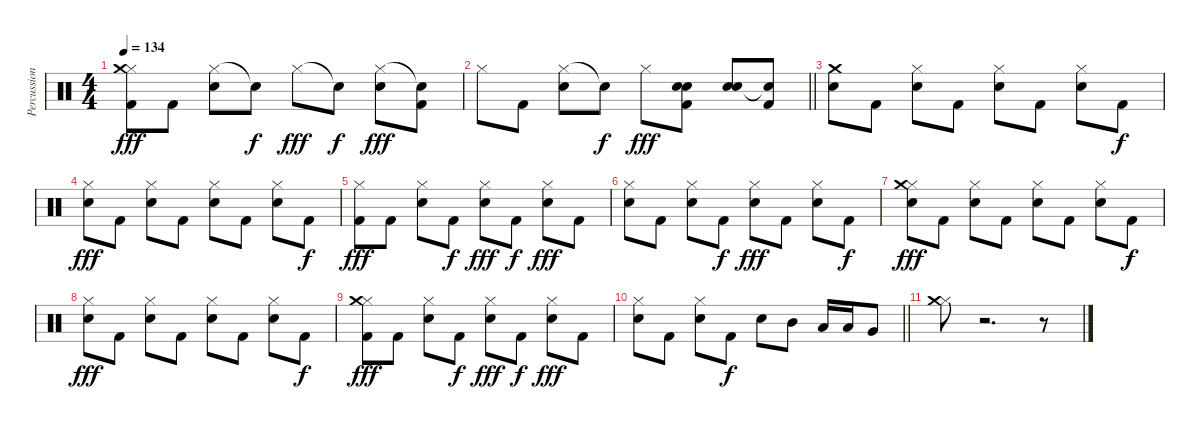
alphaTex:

\track ("Percussion" "Percussion") {instrument percussion}
\staff {score}
\articulation defaults
\ts (4 4)
\tempo 134
\clef neutral
\ks c
("Hi-Hat (closed)" "Crash medium (hit)" "Kick (hit) 2").8{dy fff} "Kick (hit) 2".8 ("Hi-Hat (closed)" "Snare (hit) 2").8 "Snare (hit)"{t}.8{dy f} "Hi-Hat (closed)".8{dy fff} "Snare (hit)"{t}.8{dy f} ("Hi-Hat (closed)" "Snare (hit) 2").8{dy fff} ("Snare (hit)"{t} "Kick (hit) 2").8 |
\barLineRight lightlight "Hi-Hat (closed)".8 "Kick (hit) 2".8
("Hi-Hat (closed)" "Snare (hit) 2").8 "Snare (hit)"{t}.8{dy f} "Hi-Hat (closed)".8{dy fff} ("Snare (hit) 2" "Snare (hit) 2" "Kick (hit) 2").8 ("Snare (hit) 2" "Snare (hit) 2").8 ("Snare (hit)"{t} "Kick (hit) 2").8 |
("Crash medium (hit)" "Snare (hit) 2").8 "Kick (hit) 2".8 ("Hi-Hat (closed)" "Snare (hit) 2").8 "Kick (hit) 2".8 ("Hi-Hat (closed)" "Snare (hit) 2").8 "Kick (hit) 2".8 ("Hi-Hat (closed)" "Snare (hit) 2").8 "Kick (hit) 2".8{dy f} |
("Hi-Hat (closed)" "Snare (hit) 2").8{dy fff} "Kick (hit) 2".8 ("Hi-Hat (closed)" "Snare (hit) 2").8 "Kick (hit) 2".8 ("Hi-Hat (closed)" "Snare (hit) 2").8 "Kick (hit) 2".8 ("Hi-Hat (closed)" "Snare (hit) 2").8 "Kick (hit) 2".8{dy f} |
("Hi-Hat (closed)" "Kick (hit) 2").8{dy fff} "Kick (hit) 2".8 ("Hi-Hat (closed)" "Snare (hit) 2").8 "Kick (hit) 2".8{dy f} ("Hi-Hat (closed)" "Snare (hit) 2").8{dy fff} "Kick (hit) 2".8{dy f} ("Hi-Hat (closed)" "Snare (hit) 2").8{dy fff} "Kick (hit) 2".8 |
("Hi-Hat (closed)" "Snare (hit) 2").8 "Kick (hit) 2".8 ("Hi-Hat (closed)" "Snare (hit) 2").8 "Kick (hit) 2".8{dy f} ("Hi-Hat (closed)" "Snare (hit) 2").8{dy fff} "Kick (hit) 2".8 ("Hi-Hat (closed)" "Snare (hit) 2").8 "Kick (hit) 2".8{dy f} |
("Hi-Hat (closed)" "Crash medium (hit)" "Snare (hit) 2").8{dy fff} "Kick (hit) 2".8 ("Hi-Hat (closed)" "Snare (hit) 2").8 "Kick (hit) 2".8 ("Hi-Hat (closed)" "Snare (hit) 2").8 "Kick (hit) 2".8 ("Hi-Hat (closed)" "Snare (hit) 2").8 "Kick (hit) 2".8{dy f} |
("Hi-Hat (closed)" "Snare (hit) 2").8{dy fff} "Kick (hit) 2".8 ("Hi-Hat (closed)" "Snare (hit) 2").8 "Kick (hit) 2".8 ("Hi-Hat (closed)" "Snare (hit) 2").8 "Kick (hit) 2".8 ("Hi-Hat (closed)" "Snare (hit) 2").8 "Kick (hit) 2".8{dy f} |
("Hi-Hat (closed)" "Crash medium (hit)" "Kick (hit) 2").8{dy fff} "Kick (hit) 2".8 ("Hi-Hat (closed)" "Snare (hit) 2").8 "Kick (hit) 2".8{dy f} ("Hi-Hat (closed)" "Snare (hit) 2").8{dy fff} "Kick (hit) 2".8{dy f} ("Hi-Hat (closed)" "Snare (hit) 2").8{dy fff} "Kick (hit) 2".8 |
\barLineRight lightlight
("Hi-Hat (closed)" "Snare (hit) 2").8 "Kick (hit) 2".8 ("Hi-Hat (closed)" "Snare (hit) 2").8 "Kick (hit) 2".8{dy f} "Snare (hit) 2".8 "Mid Tom (hit)".8 "Low Tom (hit)".16 "Low Tom (hit)".16 "Very Low Tom (hit)".8 |
("Hi-Hat (closed)" "Crash medium (hit)").8 r.2{d} r.8
